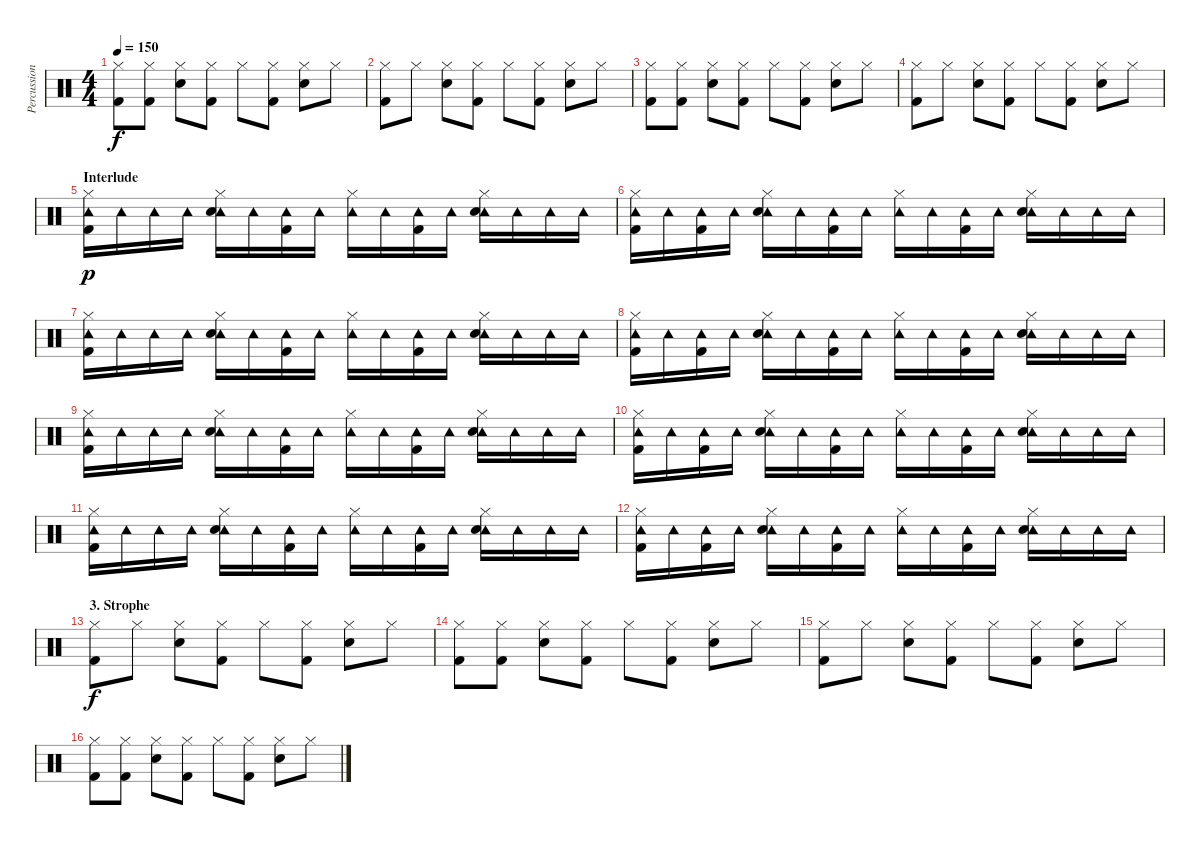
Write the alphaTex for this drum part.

\track ("Percussion" "Percussion") {instrument percussion}
\staff {score}
\articulation defaults
\ts (4 4)
\tempo 150
\clef neutral
\ks c
("Hi-Hat (closed)" "Kick (hit) 2").8{dy f} ("Hi-Hat (closed)" "Kick (hit) 2").8 ("Hi-Hat (closed)" "Electric Snare (hit)").8 ("Hi-Hat (closed)" "Kick (hit) 2").8 "Hi-Hat (closed)".8 ("Hi-Hat (closed)" "Kick (hit) 2").8 ("Hi-Hat (closed)" "Electric Snare (hit)").8 "Hi-Hat (closed)".8 |
("Hi-Hat (closed)" "Kick (hit) 2").8 "Hi-Hat (closed)".8 ("Hi-Hat (closed)" "Electric Snare (hit)").8 ("Hi-Hat (closed)" "Kick (hit) 2").8 "Hi-Hat (closed)".8 ("Hi-Hat (closed)" "Kick (hit) 2").8 ("Hi-Hat (closed)" "Electric Snare (hit)").8 "Hi-Hat (closed)".8 |
("Hi-Hat (closed)" "Kick (hit) 2").8 ("Hi-Hat (closed)" "Kick (hit) 2").8 ("Hi-Hat (closed)" "Electric Snare (hit)").8 ("Hi-Hat (closed)" "Kick (hit) 2").8 "Hi-Hat (closed)".8 ("Hi-Hat (closed)" "Kick (hit) 2").8 ("Hi-Hat (closed)" "Electric Snare (hit)").8 "Hi-Hat (closed)".8 |
("Hi-Hat (closed)" "Kick (hit) 2").8 "Hi-Hat (closed)".8 ("Hi-Hat (closed)" "Electric Snare (hit)").8 ("Hi-Hat (closed)" "Kick (hit) 2").8 "Hi-Hat (closed)".8 ("Hi-Hat (closed)" "Kick (hit) 2").8 ("Hi-Hat (closed)" "Electric Snare (hit)").8 "Hi-Hat (closed)".8 |
\section ("" "Interlude")
("Hi-Hat (closed)" "Tambourine (hit)" "Kick (hit) 2").16{dy p} "Tambourine (hit)".16 "Tambourine (hit)".16 "Tambourine (hit)".16 ("Hi-Hat (closed)" "Tambourine (hit)" "Electric Snare (hit)").16 "Tambourine (hit)".16 ("Tambourine (hit)" "Kick (hit) 2").16 "Tambourine (hit)".16 ("Hi-Hat (closed)" "Tambourine (hit)").16 "Tambourine (hit)".16 ("Tambourine (hit)" "Kick (hit) 2").16 "Tambourine (hit)".16 ("Hi-Hat (closed)" "Tambourine (hit)" "Electric Snare (hit)").16 "Tambourine (hit)".16 "Tambourine (hit)".16 "Tambourine (hit)".16 |
("Hi-Hat (closed)" "Tambourine (hit)" "Kick (hit) 2").16 "Tambourine (hit)".16 ("Tambourine (hit)" "Kick (hit) 2").16 "Tambourine (hit)".16 ("Hi-Hat (closed)" "Tambourine (hit)" "Electric Snare (hit)").16 "Tambourine (hit)".16 ("Tambourine (hit)" "Kick (hit) 2").16 "Tambourine (hit)".16 ("Hi-Hat (closed)" "Tambourine (hit)").16 "Tambourine (hit)".16 ("Tambourine (hit)" "Kick (hit) 2").16 "Tambourine (hit)".16 ("Hi-Hat (closed)" "Tambourine (hit)" "Electric Snare (hit)").16 "Tambourine (hit)".16 "Tambourine (hit)".16 "Tambourine (hit)".16 |
("Hi-Hat (closed)" "Tambourine (hit)" "Kick (hit) 2").16 "Tambourine (hit)".16 "Tambourine (hit)".16 "Tambourine (hit)".16 ("Hi-Hat (closed)" "Tambourine (hit)" "Electric Snare (hit)").16 "Tambourine (hit)".16 ("Tambourine (hit)" "Kick (hit) 2").16 "Tambourine (hit)".16 ("Hi-Hat (closed)" "Tambourine (hit)").16 "Tambourine (hit)".16 ("Tambourine (hit)" "Kick (hit) 2").16 "Tambourine (hit)".16 ("Hi-Hat (closed)" "Tambourine (hit)" "Electric Snare (hit)").16 "Tambourine (hit)".16 "Tambourine (hit)".16 "Tambourine (hit)".16 |
("Hi-Hat (closed)" "Tambourine (hit)" "Kick (hit) 2").16 "Tambourine (hit)".16 ("Tambourine (hit)" "Kick (hit) 2").16 "Tambourine (hit)".16 ("Hi-Hat (closed)" "Tambourine (hit)" "Electric Snare (hit)").16 "Tambourine (hit)".16 ("Tambourine (hit)" "Kick (hit) 2").16 "Tambourine (hit)".16 ("Hi-Hat (closed)" "Tambourine (hit)").16 "Tambourine (hit)".16 ("Tambourine (hit)" "Kick (hit) 2").16 "Tambourine (hit)".16 ("Hi-Hat (closed)" "Tambourine (hit)" "Electric Snare (hit)").16 "Tambourine (hit)".16 "Tambourine (hit)".16 "Tambourine (hit)".16 |
("Hi-Hat (closed)" "Tambourine (hit)" "Kick (hit) 2").16 "Tambourine (hit)".16 "Tambourine (hit)".16 "Tambourine (hit)".16 ("Hi-Hat (closed)" "Tambourine (hit)" "Electric Snare (hit)").16 "Tambourine (hit)".16 ("Tambourine (hit)" "Kick (hit) 2").16 "Tambourine (hit)".16 ("Hi-Hat (closed)" "Tambourine (hit)").16 "Tambourine (hit)".16 ("Tambourine (hit)" "Kick (hit) 2").16 "Tambourine (hit)".16 ("Hi-Hat (closed)" "Tambourine (hit)" "Electric Snare (hit)").16 "Tambourine (hit)".16 "Tambourine (hit)".16 "Tambourine (hit)".16 |
("Hi-Hat (closed)" "Tambourine (hit)" "Kick (hit) 2").16 "Tambourine (hit)".16 ("Tambourine (hit)" "Kick (hit) 2").16 "Tambourine (hit)".16 ("Hi-Hat (closed)" "Tambourine (hit)" "Electric Snare (hit)").16 "Tambourine (hit)".16 ("Tambourine (hit)" "Kick (hit) 2").16 "Tambourine (hit)".16 ("Hi-Hat (closed)" "Tambourine (hit)").16 "Tambourine (hit)".16 ("Tambourine (hit)" "Kick (hit) 2").16 "Tambourine (hit)".16 ("Hi-Hat (closed)" "Tambourine (hit)" "Electric Snare (hit)").16 "Tambourine (hit)".16 "Tambourine (hit)".16 "Tambourine (hit)".16 |
("Hi-Hat (closed)" "Tambourine (hit)" "Kick (hit) 2").16 "Tambourine (hit)".16 "Tambourine (hit)".16 "Tambourine (hit)".16 ("Hi-Hat (closed)" "Tambourine (hit)" "Electric Snare (hit)").16 "Tambourine (hit)".16 ("Tambourine (hit)" "Kick (hit) 2").16 "Tambourine (hit)".16 ("Hi-Hat (closed)" "Tambourine (hit)").16 "Tambourine (hit)".16 ("Tambourine (hit)" "Kick (hit) 2").16 "Tambourine (hit)".16 ("Hi-Hat (closed)" "Tambourine (hit)" "Electric Snare (hit)").16 "Tambourine (hit)".16 "Tambourine (hit)".16 "Tambourine (hit)".16 |
("Hi-Hat (closed)" "Tambourine (hit)" "Kick (hit) 2").16 "Tambourine (hit)".16 ("Tambourine (hit)" "Kick (hit) 2").16 "Tambourine (hit)".16 ("Hi-Hat (closed)" "Tambourine (hit)" "Electric Snare (hit)").16 "Tambourine (hit)".16 ("Tambourine (hit)" "Kick (hit) 2").16 "Tambourine (hit)".16 ("Hi-Hat (closed)" "Tambourine (hit)").16 "Tambourine (hit)".16 ("Tambourine (hit)" "Kick (hit) 2").16 "Tambourine (hit)".16 ("Hi-Hat (closed)" "Tambourine (hit)" "Electric Snare (hit)").16 "Tambourine (hit)".16 "Tambourine (hit)".16 "Tambourine (hit)".16 |
\section ("" "3. Strophe")
("Hi-Hat (closed)" "Kick (hit) 2").8{dy f} "Hi-Hat (closed)".8 ("Hi-Hat (closed)" "Electric Snare (hit)").8 ("Hi-Hat (closed)" "Kick (hit) 2").8 "Hi-Hat (closed)".8 ("Hi-Hat (closed)" "Kick (hit) 2").8 ("Hi-Hat (closed)" "Electric Snare (hit)").8 "Hi-Hat (closed)".8 |
("Hi-Hat (closed)" "Kick (hit) 2").8 ("Hi-Hat (closed)" "Kick (hit) 2").8 ("Hi-Hat (closed)" "Electric Snare (hit)").8 ("Hi-Hat (closed)" "Kick (hit) 2").8 "Hi-Hat (closed)".8 ("Hi-Hat (closed)" "Kick (hit) 2").8 ("Hi-Hat (closed)" "Electric Snare (hit)").8 "Hi-Hat (closed)".8 |
("Hi-Hat (closed)" "Kick (hit) 2").8 "Hi-Hat (closed)".8 ("Hi-Hat (closed)" "Electric Snare (hit)").8 ("Hi-Hat (closed)" "Kick (hit) 2").8 "Hi-Hat (closed)".8 ("Hi-Hat (closed)" "Kick (hit) 2").8 ("Hi-Hat (closed)" "Electric Snare (hit)").8 "Hi-Hat (closed)".8 |
("Hi-Hat (closed)" "Kick (hit) 2").8 ("Hi-Hat (closed)" "Kick (hit) 2").8 ("Hi-Hat (closed)" "Electric Snare (hit)").8 ("Hi-Hat (closed)" "Kick (hit) 2").8 "Hi-Hat (closed)".8 ("Hi-Hat (closed)" "Kick (hit) 2").8 ("Hi-Hat (closed)" "Electric Snare (hit)").8 "Hi-Hat (closed)".8
